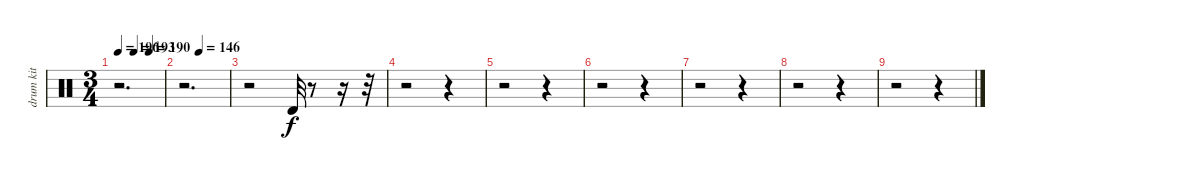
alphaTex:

\track (" drum kit (hi-hat/cymbals)" " drum kit ") {instrument percussion}
\staff {score}
\articulation defaults
\ts (3 4)
\tempo 196
\tempo (193 0.3472222222222222)
\tempo (190 0.6805555555555556)
\clef neutral
\ks c
r.2{d dy mf} |
\tempo (146 0.3472222222222222)
r.2{d} |
r.2 "Timbale high (hit)".32{dy f} r.8 r.16 r.32 |
r.2 r.4 |
r.2 r.4 |
r.2 r.4 |
r.2 r.4 |
r.2 r.4 |
r.2 r.4
